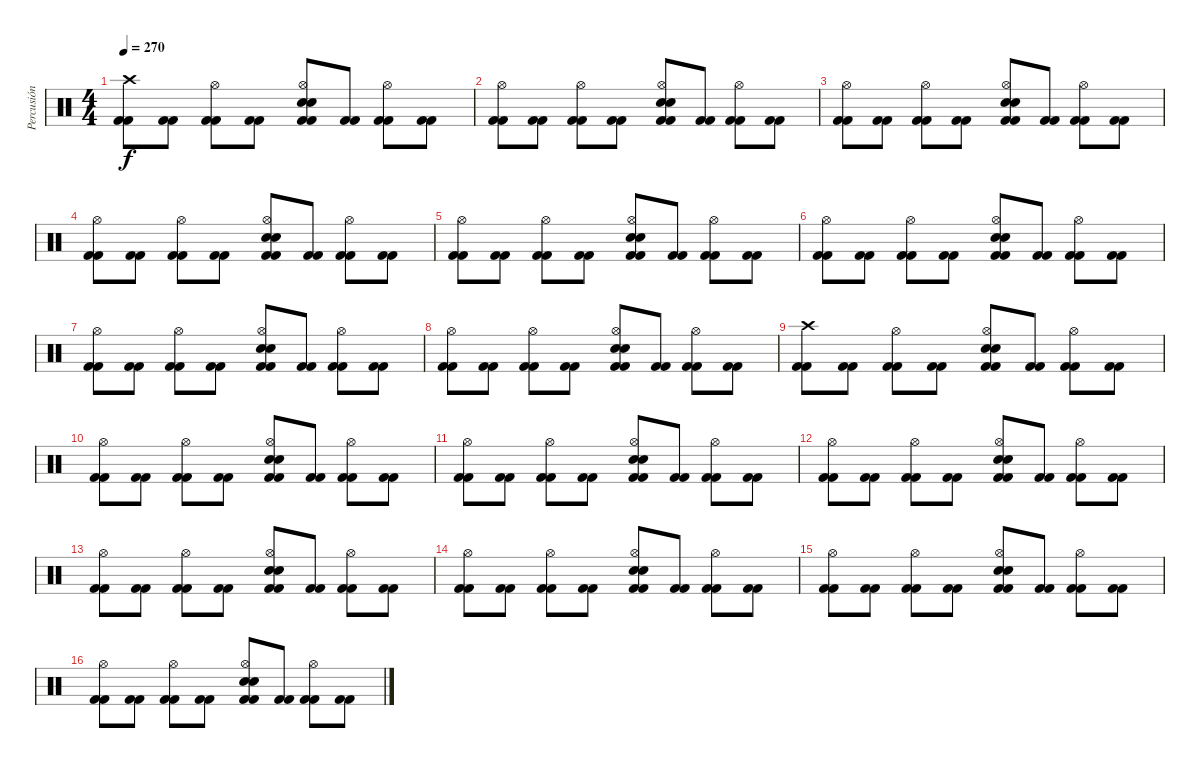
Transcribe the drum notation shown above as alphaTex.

\track ("Percusión" "Percusión") {instrument percussion}
\staff {score}
\articulation defaults
\ts (4 4)
\tempo 270
\clef neutral
\ks c
("Kick (hit) 2" "Kick (hit) 2" "Crash high (hit)").8{dy f} ("Kick (hit) 2" "Kick (hit) 2").8 ("Kick (hit) 2" "Kick (hit) 2" "Hi-Hat (open)").8 ("Kick (hit) 2" "Kick (hit) 2").8 ("Kick (hit) 2" "Kick (hit) 2" "Electric Snare (hit)" "Electric Snare (hit)" "Hi-Hat (open)").8 ("Kick (hit) 2" "Kick (hit) 2").8 ("Kick (hit) 2" "Kick (hit) 2" "Hi-Hat (open)").8 ("Kick (hit) 2" "Kick (hit) 2").8 |
("Kick (hit) 2" "Kick (hit) 2" "Hi-Hat (open)").8 ("Kick (hit) 2" "Kick (hit) 2").8 ("Kick (hit) 2" "Kick (hit) 2" "Hi-Hat (open)").8 ("Kick (hit) 2" "Kick (hit) 2").8 ("Kick (hit) 2" "Kick (hit) 2" "Electric Snare (hit)" "Electric Snare (hit)" "Hi-Hat (open)").8 ("Kick (hit) 2" "Kick (hit) 2").8 ("Kick (hit) 2" "Kick (hit) 2" "Hi-Hat (open)").8 ("Kick (hit) 2" "Kick (hit) 2").8 |
("Kick (hit) 2" "Kick (hit) 2" "Hi-Hat (open)").8 ("Kick (hit) 2" "Kick (hit) 2").8 ("Kick (hit) 2" "Kick (hit) 2" "Hi-Hat (open)").8 ("Kick (hit) 2" "Kick (hit) 2").8 ("Kick (hit) 2" "Kick (hit) 2" "Electric Snare (hit)" "Electric Snare (hit)" "Hi-Hat (open)").8 ("Kick (hit) 2" "Kick (hit) 2").8 ("Kick (hit) 2" "Kick (hit) 2" "Hi-Hat (open)").8 ("Kick (hit) 2" "Kick (hit) 2").8 |
("Kick (hit) 2" "Kick (hit) 2" "Hi-Hat (open)").8 ("Kick (hit) 2" "Kick (hit) 2").8 ("Kick (hit) 2" "Kick (hit) 2" "Hi-Hat (open)").8 ("Kick (hit) 2" "Kick (hit) 2").8 ("Kick (hit) 2" "Kick (hit) 2" "Electric Snare (hit)" "Electric Snare (hit)" "Hi-Hat (open)").8 ("Kick (hit) 2" "Kick (hit) 2").8 ("Kick (hit) 2" "Kick (hit) 2" "Hi-Hat (open)").8 ("Kick (hit) 2" "Kick (hit) 2").8 |
("Kick (hit) 2" "Kick (hit) 2" "Hi-Hat (open)").8 ("Kick (hit) 2" "Kick (hit) 2").8 ("Kick (hit) 2" "Kick (hit) 2" "Hi-Hat (open)").8 ("Kick (hit) 2" "Kick (hit) 2").8 ("Kick (hit) 2" "Kick (hit) 2" "Electric Snare (hit)" "Electric Snare (hit)" "Hi-Hat (open)").8 ("Kick (hit) 2" "Kick (hit) 2").8 ("Kick (hit) 2" "Kick (hit) 2" "Hi-Hat (open)").8 ("Kick (hit) 2" "Kick (hit) 2").8 |
("Kick (hit) 2" "Kick (hit) 2" "Hi-Hat (open)").8 ("Kick (hit) 2" "Kick (hit) 2").8 ("Kick (hit) 2" "Kick (hit) 2" "Hi-Hat (open)").8 ("Kick (hit) 2" "Kick (hit) 2").8 ("Kick (hit) 2" "Kick (hit) 2" "Electric Snare (hit)" "Electric Snare (hit)" "Hi-Hat (open)").8 ("Kick (hit) 2" "Kick (hit) 2").8 ("Kick (hit) 2" "Kick (hit) 2" "Hi-Hat (open)").8 ("Kick (hit) 2" "Kick (hit) 2").8 |
("Kick (hit) 2" "Kick (hit) 2" "Hi-Hat (open)").8 ("Kick (hit) 2" "Kick (hit) 2").8 ("Kick (hit) 2" "Kick (hit) 2" "Hi-Hat (open)").8 ("Kick (hit) 2" "Kick (hit) 2").8 ("Kick (hit) 2" "Kick (hit) 2" "Electric Snare (hit)" "Electric Snare (hit)" "Hi-Hat (open)").8 ("Kick (hit) 2" "Kick (hit) 2").8 ("Kick (hit) 2" "Kick (hit) 2" "Hi-Hat (open)").8 ("Kick (hit) 2" "Kick (hit) 2").8 |
("Kick (hit) 2" "Kick (hit) 2" "Hi-Hat (open)").8 ("Kick (hit) 2" "Kick (hit) 2").8 ("Kick (hit) 2" "Kick (hit) 2" "Hi-Hat (open)").8 ("Kick (hit) 2" "Kick (hit) 2").8 ("Kick (hit) 2" "Kick (hit) 2" "Electric Snare (hit)" "Electric Snare (hit)" "Hi-Hat (open)").8 ("Kick (hit) 2" "Kick (hit) 2").8 ("Kick (hit) 2" "Kick (hit) 2" "Hi-Hat (open)").8 ("Kick (hit) 2" "Kick (hit) 2").8 |
("Kick (hit) 2" "Kick (hit) 2" "Crash high (hit)").8 ("Kick (hit) 2" "Kick (hit) 2").8 ("Kick (hit) 2" "Kick (hit) 2" "Hi-Hat (open)").8 ("Kick (hit) 2" "Kick (hit) 2").8 ("Kick (hit) 2" "Kick (hit) 2" "Electric Snare (hit)" "Electric Snare (hit)" "Hi-Hat (open)").8 ("Kick (hit) 2" "Kick (hit) 2").8 ("Kick (hit) 2" "Kick (hit) 2" "Hi-Hat (open)").8 ("Kick (hit) 2" "Kick (hit) 2").8 |
("Kick (hit) 2" "Kick (hit) 2" "Hi-Hat (open)").8 ("Kick (hit) 2" "Kick (hit) 2").8 ("Kick (hit) 2" "Kick (hit) 2" "Hi-Hat (open)").8 ("Kick (hit) 2" "Kick (hit) 2").8 ("Kick (hit) 2" "Kick (hit) 2" "Electric Snare (hit)" "Electric Snare (hit)" "Hi-Hat (open)").8 ("Kick (hit) 2" "Kick (hit) 2").8 ("Kick (hit) 2" "Kick (hit) 2" "Hi-Hat (open)").8 ("Kick (hit) 2" "Kick (hit) 2").8 |
("Kick (hit) 2" "Kick (hit) 2" "Hi-Hat (open)").8 ("Kick (hit) 2" "Kick (hit) 2").8 ("Kick (hit) 2" "Kick (hit) 2" "Hi-Hat (open)").8 ("Kick (hit) 2" "Kick (hit) 2").8 ("Kick (hit) 2" "Kick (hit) 2" "Electric Snare (hit)" "Electric Snare (hit)" "Hi-Hat (open)").8 ("Kick (hit) 2" "Kick (hit) 2").8 ("Kick (hit) 2" "Kick (hit) 2" "Hi-Hat (open)").8 ("Kick (hit) 2" "Kick (hit) 2").8 |
("Kick (hit) 2" "Kick (hit) 2" "Hi-Hat (open)").8 ("Kick (hit) 2" "Kick (hit) 2").8 ("Kick (hit) 2" "Kick (hit) 2" "Hi-Hat (open)").8 ("Kick (hit) 2" "Kick (hit) 2").8 ("Kick (hit) 2" "Kick (hit) 2" "Electric Snare (hit)" "Electric Snare (hit)" "Hi-Hat (open)").8 ("Kick (hit) 2" "Kick (hit) 2").8 ("Kick (hit) 2" "Kick (hit) 2" "Hi-Hat (open)").8 ("Kick (hit) 2" "Kick (hit) 2").8 |
("Kick (hit) 2" "Kick (hit) 2" "Hi-Hat (open)").8 ("Kick (hit) 2" "Kick (hit) 2").8 ("Kick (hit) 2" "Kick (hit) 2" "Hi-Hat (open)").8 ("Kick (hit) 2" "Kick (hit) 2").8 ("Kick (hit) 2" "Kick (hit) 2" "Electric Snare (hit)" "Electric Snare (hit)" "Hi-Hat (open)").8 ("Kick (hit) 2" "Kick (hit) 2").8 ("Kick (hit) 2" "Kick (hit) 2" "Hi-Hat (open)").8 ("Kick (hit) 2" "Kick (hit) 2").8 |
("Kick (hit) 2" "Kick (hit) 2" "Hi-Hat (open)").8 ("Kick (hit) 2" "Kick (hit) 2").8 ("Kick (hit) 2" "Kick (hit) 2" "Hi-Hat (open)").8 ("Kick (hit) 2" "Kick (hit) 2").8 ("Kick (hit) 2" "Kick (hit) 2" "Electric Snare (hit)" "Electric Snare (hit)" "Hi-Hat (open)").8 ("Kick (hit) 2" "Kick (hit) 2").8 ("Kick (hit) 2" "Kick (hit) 2" "Hi-Hat (open)").8 ("Kick (hit) 2" "Kick (hit) 2").8 |
("Kick (hit) 2" "Kick (hit) 2" "Hi-Hat (open)").8 ("Kick (hit) 2" "Kick (hit) 2").8 ("Kick (hit) 2" "Kick (hit) 2" "Hi-Hat (open)").8 ("Kick (hit) 2" "Kick (hit) 2").8 ("Kick (hit) 2" "Kick (hit) 2" "Electric Snare (hit)" "Electric Snare (hit)" "Hi-Hat (open)").8 ("Kick (hit) 2" "Kick (hit) 2").8 ("Kick (hit) 2" "Kick (hit) 2" "Hi-Hat (open)").8 ("Kick (hit) 2" "Kick (hit) 2").8 |
("Kick (hit) 2" "Kick (hit) 2" "Hi-Hat (open)").8 ("Kick (hit) 2" "Kick (hit) 2").8 ("Kick (hit) 2" "Kick (hit) 2" "Hi-Hat (open)").8 ("Kick (hit) 2" "Kick (hit) 2").8 ("Kick (hit) 2" "Kick (hit) 2" "Electric Snare (hit)" "Electric Snare (hit)" "Hi-Hat (open)").8 ("Kick (hit) 2" "Kick (hit) 2").8 ("Kick (hit) 2" "Kick (hit) 2" "Hi-Hat (open)").8 ("Kick (hit) 2" "Kick (hit) 2").8
